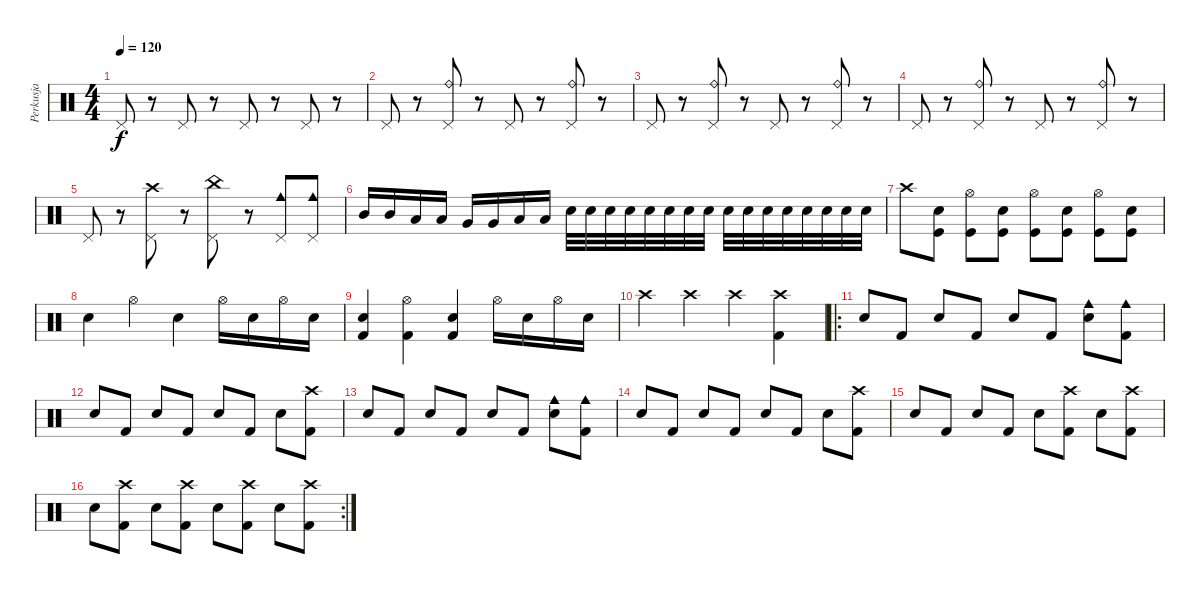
\track ("Perkusja" "Perkusja") {instrument percussion}
\staff {score}
\articulation defaults
\ts (4 4)
\tempo 120
\clef neutral
\ks c "Pedal Hi-Hat (hit)".8{dy f}
r.8 "Pedal Hi-Hat (hit)".8 r.8 "Pedal Hi-Hat (hit)".8 r.8 "Pedal Hi-Hat (hit)".8 r.8 |
"Pedal Hi-Hat (hit)".8 r.8 ("Ride (bell)" "Pedal Hi-Hat (hit)").8 r.8 "Pedal Hi-Hat (hit)".8 r.8 ("Ride (bell)" "Pedal Hi-Hat (hit)").8 r.8 |
"Pedal Hi-Hat (hit)".8 r.8 ("Ride (bell)" "Pedal Hi-Hat (hit)").8 r.8 "Pedal Hi-Hat (hit)".8 r.8 ("Ride (bell)" "Pedal Hi-Hat (hit)").8 r.8 |
"Pedal Hi-Hat (hit)".8 r.8 ("Ride (bell)" "Pedal Hi-Hat (hit)").8 r.8 "Pedal Hi-Hat (hit)".8 r.8 ("Ride (bell)" "Pedal Hi-Hat (hit)").8 r.8 |
"Pedal Hi-Hat (hit)".8 r.8 ("Crash high (hit)" "Pedal Hi-Hat (hit)").8 r.8 ("China (hit)" "Pedal Hi-Hat (hit)").8 r.8 ("Cowbell medium (hit)" "Pedal Hi-Hat (hit)").8 ("Cowbell medium (hit)" "Pedal Hi-Hat (hit)").8 |
"Mid Tom (hit)".16 "Mid Tom (hit)".16 "Low Tom (hit)".16 "Low Tom (hit)".16 "Very Low Tom (hit)".16 "Very Low Tom (hit)".16 "Low Floor Tom (hit)".16 "Low Floor Tom (hit)".16 "Snare (hit) 2".32 "Snare (hit) 2".32 "Snare (hit) 2".32 "Snare (hit) 2".32 "Snare (hit) 2".32 "Snare (hit) 2".32 "Snare (hit) 2".32 "Snare (hit) 2".32 "Snare (hit) 2".32 "Snare (hit) 2".32 "Snare (hit) 2".32 "Snare (hit) 2".32 "Snare (hit) 2".32 "Snare (hit) 2".32 "Snare (hit) 2".32 "Snare (hit) 2".32 |
"Crash high (hit)".8 ("Snare (hit) 2" "Kick (hit)").8 ("Hi-Hat (open)" "Kick (hit)").8 ("Snare (hit) 2" "Kick (hit)").8 ("Hi-Hat (open)" "Kick (hit)").8 ("Snare (hit) 2" "Kick (hit)").8 ("Hi-Hat (open)" "Kick (hit)").8 ("Snare (hit) 2" "Kick (hit)").8 |
"Snare (hit) 2".4 "Hi-Hat (open)".4 "Snare (hit) 2".4 "Hi-Hat (open)".16 "Snare (hit) 2".16 "Hi-Hat (open)".16 "Snare (hit) 2".16 |
("Snare (hit) 2" "Kick (hit) 2").4 ("Hi-Hat (open)" "Kick (hit) 2").4 ("Snare (hit) 2" "Kick (hit) 2").4 "Hi-Hat (open)".16 "Snare (hit) 2".16 "Hi-Hat (open)".16 "Snare (hit) 2".16 |
"Crash high (hit)".4 "Crash high (hit)".4 "Crash high (hit)".4 ("Crash high (hit)" "Kick (hit) 2").4 |
\ro "Snare (hit) 2".8 "Kick (hit) 2".8 "Snare (hit) 2".8 "Kick (hit) 2".8 "Snare (hit) 2".8 "Kick (hit) 2".8
("Cowbell medium (hit)" "Snare (hit) 2").8 ("Cowbell medium (hit)" "Kick (hit) 2").8 |
"Snare (hit) 2".8 "Kick (hit) 2".8 "Snare (hit) 2".8 "Kick (hit) 2".8 "Snare (hit) 2".8 "Kick (hit) 2".8 "Snare (hit) 2".8 ("Crash high (hit)" "Kick (hit) 2").8 |
"Snare (hit) 2".8 "Kick (hit) 2".8 "Snare (hit) 2".8 "Kick (hit) 2".8 "Snare (hit) 2".8 "Kick (hit) 2".8 ("Cowbell medium (hit)" "Snare (hit) 2").8 ("Cowbell medium (hit)" "Kick (hit) 2").8 |
"Snare (hit) 2".8 "Kick (hit) 2".8 "Snare (hit) 2".8 "Kick (hit) 2".8 "Snare (hit) 2".8 "Kick (hit) 2".8 "Snare (hit) 2".8 ("Crash high (hit)" "Kick (hit) 2").8 |
"Snare (hit) 2".8 "Kick (hit) 2".8 "Snare (hit) 2".8 "Kick (hit) 2".8 "Snare (hit) 2".8 ("Crash high (hit)" "Kick (hit) 2").8 "Snare (hit) 2".8 ("Crash high (hit)" "Kick (hit) 2").8 |
\rc 2 "Snare (hit) 2".8
("Crash high (hit)" "Kick (hit) 2").8 "Snare (hit) 2".8 ("Crash high (hit)" "Kick (hit) 2").8 "Snare (hit) 2".8 ("Crash high (hit)" "Kick (hit) 2").8 "Snare (hit) 2".8 ("Crash high (hit)" "Kick (hit) 2").8
